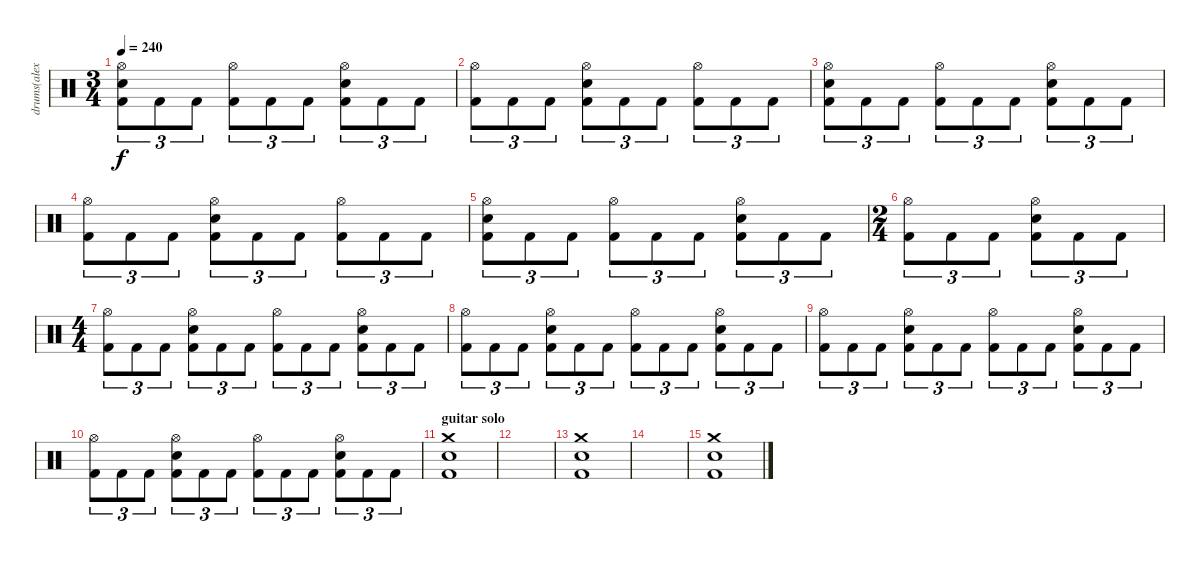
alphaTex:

\track ("drums(alex holzshwart)" "drums(alex") {instrument percussion}
\staff {score}
\articulation defaults
\ts (3 4)
\tempo 240
\clef neutral
\ks c
("Hi-Hat (open)" "Electric Snare (hit)" "Kick (hit) 2").8{tu (3 2) dy f} "Kick (hit) 2".8{tu (3 2)} "Kick (hit) 2".8{tu (3 2)} ("Hi-Hat (open)" "Kick (hit) 2").8{tu (3 2)} "Kick (hit) 2".8{tu (3 2)} "Kick (hit) 2".8{tu (3 2)} ("Hi-Hat (open)" "Electric Snare (hit)" "Kick (hit) 2").8{tu (3 2)} "Kick (hit) 2".8{tu (3 2)} "Kick (hit) 2".8{tu (3 2)} |
("Hi-Hat (open)" "Kick (hit) 2").8{tu (3 2)} "Kick (hit) 2".8{tu (3 2)} "Kick (hit) 2".8{tu (3 2)} ("Hi-Hat (open)" "Electric Snare (hit)" "Kick (hit) 2").8{tu (3 2)} "Kick (hit) 2".8{tu (3 2)} "Kick (hit) 2".8{tu (3 2)} ("Hi-Hat (open)" "Kick (hit) 2").8{tu (3 2)} "Kick (hit) 2".8{tu (3 2)} "Kick (hit) 2".8{tu (3 2)} |
("Hi-Hat (open)" "Electric Snare (hit)" "Kick (hit) 2").8{tu (3 2)} "Kick (hit) 2".8{tu (3 2)} "Kick (hit) 2".8{tu (3 2)} ("Hi-Hat (open)" "Kick (hit) 2").8{tu (3 2)} "Kick (hit) 2".8{tu (3 2)} "Kick (hit) 2".8{tu (3 2)} ("Hi-Hat (open)" "Electric Snare (hit)" "Kick (hit) 2").8{tu (3 2)} "Kick (hit) 2".8{tu (3 2)} "Kick (hit) 2".8{tu (3 2)} |
("Hi-Hat (open)" "Kick (hit) 2").8{tu (3 2)} "Kick (hit) 2".8{tu (3 2)} "Kick (hit) 2".8{tu (3 2)} ("Hi-Hat (open)" "Electric Snare (hit)" "Kick (hit) 2").8{tu (3 2)} "Kick (hit) 2".8{tu (3 2)} "Kick (hit) 2".8{tu (3 2)} ("Hi-Hat (open)" "Kick (hit) 2").8{tu (3 2)} "Kick (hit) 2".8{tu (3 2)} "Kick (hit) 2".8{tu (3 2)} |
("Hi-Hat (open)" "Electric Snare (hit)" "Kick (hit) 2").8{tu (3 2)} "Kick (hit) 2".8{tu (3 2)} "Kick (hit) 2".8{tu (3 2)} ("Hi-Hat (open)" "Kick (hit) 2").8{tu (3 2)} "Kick (hit) 2".8{tu (3 2)} "Kick (hit) 2".8{tu (3 2)} ("Hi-Hat (open)" "Electric Snare (hit)" "Kick (hit) 2").8{tu (3 2)} "Kick (hit) 2".8{tu (3 2)} "Kick (hit) 2".8{tu (3 2)} |
\ts (2 4)
("Hi-Hat (open)" "Kick (hit) 2").8{tu (3 2)} "Kick (hit) 2".8{tu (3 2)} "Kick (hit) 2".8{tu (3 2)} ("Hi-Hat (open)" "Electric Snare (hit)" "Kick (hit) 2").8{tu (3 2)} "Kick (hit) 2".8{tu (3 2)} "Kick (hit) 2".8{tu (3 2)} |
\ts (4 4)
("Hi-Hat (open)" "Kick (hit) 2").8{tu (3 2)} "Kick (hit) 2".8{tu (3 2)} "Kick (hit) 2".8{tu (3 2)} ("Hi-Hat (open)" "Electric Snare (hit)" "Kick (hit) 2").8{tu (3 2)} "Kick (hit) 2".8{tu (3 2)} "Kick (hit) 2".8{tu (3 2)} ("Hi-Hat (open)" "Kick (hit) 2").8{tu (3 2)} "Kick (hit) 2".8{tu (3 2)} "Kick (hit) 2".8{tu (3 2)} ("Hi-Hat (open)" "Electric Snare (hit)" "Kick (hit) 2").8{tu (3 2)} "Kick (hit) 2".8{tu (3 2)} "Kick (hit) 2".8{tu (3 2)} |
("Hi-Hat (open)" "Kick (hit) 2").8{tu (3 2)} "Kick (hit) 2".8{tu (3 2)} "Kick (hit) 2".8{tu (3 2)} ("Hi-Hat (open)" "Electric Snare (hit)" "Kick (hit) 2").8{tu (3 2)} "Kick (hit) 2".8{tu (3 2)} "Kick (hit) 2".8{tu (3 2)} ("Hi-Hat (open)" "Kick (hit) 2").8{tu (3 2)} "Kick (hit) 2".8{tu (3 2)} "Kick (hit) 2".8{tu (3 2)} ("Hi-Hat (open)" "Electric Snare (hit)" "Kick (hit) 2").8{tu (3 2)} "Kick (hit) 2".8{tu (3 2)} "Kick (hit) 2".8{tu (3 2)} |
("Hi-Hat (open)" "Kick (hit) 2").8{tu (3 2)} "Kick (hit) 2".8{tu (3 2)} "Kick (hit) 2".8{tu (3 2)} ("Hi-Hat (open)" "Electric Snare (hit)" "Kick (hit) 2").8{tu (3 2)} "Kick (hit) 2".8{tu (3 2)} "Kick (hit) 2".8{tu (3 2)} ("Hi-Hat (open)" "Kick (hit) 2").8{tu (3 2)} "Kick (hit) 2".8{tu (3 2)} "Kick (hit) 2".8{tu (3 2)} ("Hi-Hat (open)" "Electric Snare (hit)" "Kick (hit) 2").8{tu (3 2)} "Kick (hit) 2".8{tu (3 2)} "Kick (hit) 2".8{tu (3 2)} |
("Hi-Hat (open)" "Kick (hit) 2").8{tu (3 2)} "Kick (hit) 2".8{tu (3 2)} "Kick (hit) 2".8{tu (3 2)} ("Hi-Hat (open)" "Electric Snare (hit)" "Kick (hit) 2").8{tu (3 2)} "Kick (hit) 2".8{tu (3 2)} "Kick (hit) 2".8{tu (3 2)} ("Hi-Hat (open)" "Kick (hit) 2").8{tu (3 2)} "Kick (hit) 2".8{tu (3 2)} "Kick (hit) 2".8{tu (3 2)} ("Hi-Hat (open)" "Electric Snare (hit)" "Kick (hit) 2").8{tu (3 2)} "Kick (hit) 2".8{tu (3 2)} "Kick (hit) 2".8{tu (3 2)} |
\section ("" "guitar solo")
("Crash medium (hit)" "Electric Snare (hit)" "Kick (hit) 2").1 |
|
("Crash medium (hit)" "Electric Snare (hit)" "Kick (hit) 2").1 |
|
("Crash medium (hit)" "Electric Snare (hit)" "Kick (hit) 2").1
